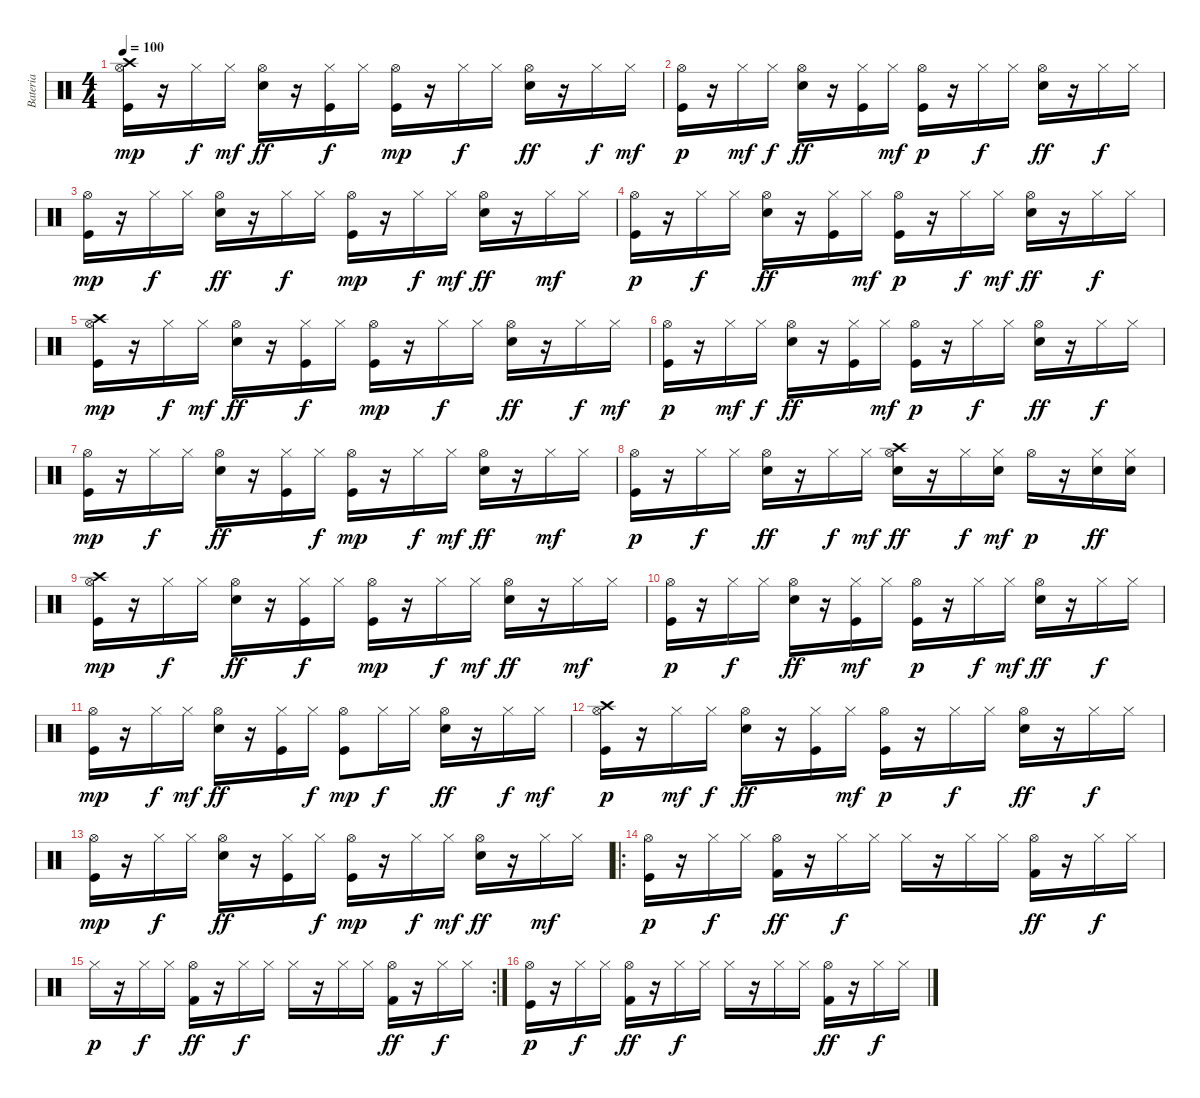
\track ("Bateria" "Bateria") {solo instrument percussion}
\staff {score}
\articulation defaults
\ts (4 4)
\tempo 100
\clef neutral
\ks c
("Kick (hit)" "Crash high (hit)" "Hi-Hat (open)").16{dy mp} r.16 "Hi-Hat (closed)".16{dy f} "Hi-Hat (closed)".16{dy mf} ("Hi-Hat (open)" "Snare (hit) 2").16{dy ff} r.16 ("Kick (hit)" "Hi-Hat (closed)").16{dy f} "Hi-Hat (closed)".16 ("Kick (hit)" "Hi-Hat (open)").16{dy mp} r.16 "Hi-Hat (closed)".16{dy f} "Hi-Hat (closed)".16 ("Hi-Hat (open)" "Snare (hit) 2").16{dy ff} r.16 "Hi-Hat (closed)".16{dy f} "Hi-Hat (closed)".16{dy mf} |
("Kick (hit)" "Hi-Hat (open)").16{dy p} r.16 "Hi-Hat (closed)".16{dy mf} "Hi-Hat (closed)".16{dy f} ("Hi-Hat (open)" "Snare (hit) 2").16{dy ff} r.16 ("Kick (hit)" "Hi-Hat (closed)").16 "Hi-Hat (closed)".16{dy mf} ("Kick (hit)" "Hi-Hat (open)").16{dy p} r.16 "Hi-Hat (closed)".16{dy f} "Hi-Hat (closed)".16 ("Hi-Hat (open)" "Snare (hit) 2").16{dy ff} r.16 "Hi-Hat (closed)".16{dy f} "Hi-Hat (closed)".16 |
("Kick (hit)" "Hi-Hat (open)").16{dy mp} r.16 "Hi-Hat (closed)".16{dy f} "Hi-Hat (closed)".16 ("Hi-Hat (open)" "Snare (hit) 2").16{dy ff} r.16 "Hi-Hat (closed)".16{dy f} "Hi-Hat (closed)".16 ("Kick (hit)" "Hi-Hat (open)").16{dy mp} r.16 "Hi-Hat (closed)".16{dy f} "Hi-Hat (closed)".16{dy mf} ("Hi-Hat (open)" "Snare (hit) 2").16{dy ff} r.16 "Hi-Hat (closed)".16{dy mf} "Hi-Hat (closed)".16 |
("Kick (hit)" "Hi-Hat (open)").16{dy p} r.16 "Hi-Hat (closed)".16{dy f} "Hi-Hat (closed)".16 ("Hi-Hat (open)" "Snare (hit) 2").16{dy ff} r.16 ("Kick (hit)" "Hi-Hat (closed)").16 "Hi-Hat (closed)".16{dy mf} ("Kick (hit)" "Hi-Hat (open)").16{dy p} r.16 "Hi-Hat (closed)".16{dy f} "Hi-Hat (closed)".16{dy mf} ("Hi-Hat (open)" "Snare (hit) 2").16{dy ff} r.16 "Hi-Hat (closed)".16{dy f} "Hi-Hat (closed)".16 |
("Kick (hit)" "Crash high (hit)" "Hi-Hat (open)").16{dy mp} r.16 "Hi-Hat (closed)".16{dy f} "Hi-Hat (closed)".16{dy mf} ("Hi-Hat (open)" "Snare (hit) 2").16{dy ff} r.16 ("Kick (hit)" "Hi-Hat (closed)").16{dy f} "Hi-Hat (closed)".16 ("Kick (hit)" "Hi-Hat (open)").16{dy mp} r.16 "Hi-Hat (closed)".16{dy f} "Hi-Hat (closed)".16 ("Hi-Hat (open)" "Snare (hit) 2").16{dy ff} r.16 "Hi-Hat (closed)".16{dy f} "Hi-Hat (closed)".16{dy mf} |
("Kick (hit)" "Hi-Hat (open)").16{dy p} r.16 "Hi-Hat (closed)".16{dy mf} "Hi-Hat (closed)".16{dy f} ("Hi-Hat (open)" "Snare (hit) 2").16{dy ff} r.16 ("Kick (hit)" "Hi-Hat (closed)").16 "Hi-Hat (closed)".16{dy mf} ("Kick (hit)" "Hi-Hat (open)").16{dy p} r.16 "Hi-Hat (closed)".16{dy f} "Hi-Hat (closed)".16 ("Hi-Hat (open)" "Snare (hit) 2").16{dy ff} r.16 "Hi-Hat (closed)".16{dy f} "Hi-Hat (closed)".16 |
("Kick (hit)" "Hi-Hat (open)").16{dy mp} r.16 "Hi-Hat (closed)".16{dy f} "Hi-Hat (closed)".16 ("Hi-Hat (open)" "Snare (hit) 2").16{dy ff} r.16 ("Kick (hit)" "Hi-Hat (closed)").16 "Hi-Hat (closed)".16{dy f} ("Kick (hit)" "Hi-Hat (open)").16{dy mp} r.16 "Hi-Hat (closed)".16{dy f} "Hi-Hat (closed)".16{dy mf} ("Hi-Hat (open)" "Snare (hit) 2").16{dy ff} r.16 "Hi-Hat (closed)".16{dy mf} "Hi-Hat (closed)".16 |
("Kick (hit)" "Hi-Hat (open)").16{dy p} r.16 "Hi-Hat (closed)".16{dy f} "Hi-Hat (closed)".16 ("Hi-Hat (open)" "Snare (hit) 2").16{dy ff} r.16 "Hi-Hat (closed)".16{dy f} "Hi-Hat (closed)".16{dy mf} ("Crash high (hit)" "Hi-Hat (open)" "Snare (hit) 2").16{dy ff} r.16 "Hi-Hat (closed)".16{dy f} ("Snare (hit) 2" "Hi-Hat (closed)").16{dy mf} "Hi-Hat (open)".16{dy p} r.16 ("Snare (hit) 2" "Hi-Hat (closed)").16{dy ff} ("Snare (hit) 2" "Hi-Hat (closed)").16 |
("Kick (hit)" "Crash high (hit)" "Hi-Hat (open)").16{dy mp} r.16 "Hi-Hat (closed)".16{dy f} "Hi-Hat (closed)".16 ("Hi-Hat (open)" "Snare (hit) 2").16{dy ff} r.16 ("Kick (hit)" "Hi-Hat (closed)").16{dy f} "Hi-Hat (closed)".16 ("Kick (hit)" "Hi-Hat (open)").16{dy mp} r.16 "Hi-Hat (closed)".16{dy f} "Hi-Hat (closed)".16{dy mf} ("Hi-Hat (open)" "Snare (hit) 2").16{dy ff} r.16 "Hi-Hat (closed)".16{dy mf} "Hi-Hat (closed)".16 |
("Kick (hit)" "Hi-Hat (open)").16{dy p} r.16 "Hi-Hat (closed)".16{dy f} "Hi-Hat (closed)".16 ("Hi-Hat (open)" "Snare (hit) 2").16{dy ff} r.16 ("Kick (hit)" "Hi-Hat (closed)").16{dy mf} "Hi-Hat (closed)".16 ("Kick (hit)" "Hi-Hat (open)").16{dy p} r.16 "Hi-Hat (closed)".16{dy f} "Hi-Hat (closed)".16{dy mf} ("Hi-Hat (open)" "Snare (hit) 2").16{dy ff} r.16 "Hi-Hat (closed)".16{dy f} "Hi-Hat (closed)".16 |
("Kick (hit)" "Hi-Hat (open)").16{dy mp} r.16 "Hi-Hat (closed)".16{dy f} "Hi-Hat (closed)".16{dy mf} ("Hi-Hat (open)" "Snare (hit) 2").16{dy ff} r.16 ("Kick (hit)" "Hi-Hat (closed)").16 "Hi-Hat (closed)".16{dy f} ("Kick (hit)" "Hi-Hat (open)").8{dy mp} "Hi-Hat (closed)".16{dy f} "Hi-Hat (closed)".16 ("Hi-Hat (open)" "Snare (hit) 2").16{dy ff} r.16 "Hi-Hat (closed)".16{dy f} "Hi-Hat (closed)".16{dy mf} |
("Kick (hit)" "Crash high (hit)" "Hi-Hat (open)").16{dy p} r.16 "Hi-Hat (closed)".16{dy mf} "Hi-Hat (closed)".16{dy f} ("Hi-Hat (open)" "Snare (hit) 2").16{dy ff} r.16 ("Kick (hit)" "Hi-Hat (closed)").16 "Hi-Hat (closed)".16{dy mf} ("Kick (hit)" "Hi-Hat (open)").16{dy p} r.16 "Hi-Hat (closed)".16{dy f} "Hi-Hat (closed)".16 ("Hi-Hat (open)" "Snare (hit) 2").16{dy ff} r.16 "Hi-Hat (closed)".16{dy f} "Hi-Hat (closed)".16 |
("Kick (hit)" "Hi-Hat (open)").16{dy mp} r.16 "Hi-Hat (closed)".16{dy f} "Hi-Hat (closed)".16 ("Hi-Hat (open)" "Snare (hit) 2").16{dy ff} r.16 ("Kick (hit)" "Hi-Hat (closed)").16 "Hi-Hat (closed)".16{dy f} ("Kick (hit)" "Hi-Hat (open)").16{dy mp} r.16 "Hi-Hat (closed)".16{dy f} "Hi-Hat (closed)".16{dy mf} ("Hi-Hat (open)" "Snare (hit) 2").16{dy ff} r.16 "Hi-Hat (closed)".16{dy mf} "Hi-Hat (closed)".16 |
\ro
("Kick (hit)" "Hi-Hat (open)").16{dy p} r.16 "Hi-Hat (closed)".16{dy f} "Hi-Hat (closed)".16 ("Hi-Hat (open)" "Kick (hit) 2").16{dy ff} r.16 "Hi-Hat (closed)".16{dy f} "Hi-Hat (closed)".16 "Hi-Hat (closed)".16 r.16 "Hi-Hat (closed)".16 "Hi-Hat (closed)".16 ("Hi-Hat (open)" "Kick (hit) 2").16{dy ff} r.16 "Hi-Hat (closed)".16{dy f} "Hi-Hat (closed)".16 |
\rc 2 "Hi-Hat (closed)".16{dy p}
r.16 "Hi-Hat (closed)".16{dy f} "Hi-Hat (closed)".16 ("Hi-Hat (open)" "Kick (hit) 2").16{dy ff} r.16 "Hi-Hat (closed)".16{dy f} "Hi-Hat (closed)".16 "Hi-Hat (closed)".16 r.16 "Hi-Hat (closed)".16 "Hi-Hat (closed)".16 ("Hi-Hat (open)" "Kick (hit) 2").16{dy ff} r.16 "Hi-Hat (closed)".16{dy f} "Hi-Hat (closed)".16 |
("Kick (hit)" "Hi-Hat (open)").16{dy p} r.16 "Hi-Hat (closed)".16{dy f} "Hi-Hat (closed)".16 ("Hi-Hat (open)" "Kick (hit) 2").16{dy ff} r.16 "Hi-Hat (closed)".16{dy f} "Hi-Hat (closed)".16 "Hi-Hat (closed)".16 r.16 "Hi-Hat (closed)".16 "Hi-Hat (closed)".16 ("Hi-Hat (open)" "Kick (hit) 2").16{dy ff} r.16 "Hi-Hat (closed)".16{dy f} "Hi-Hat (closed)".16
